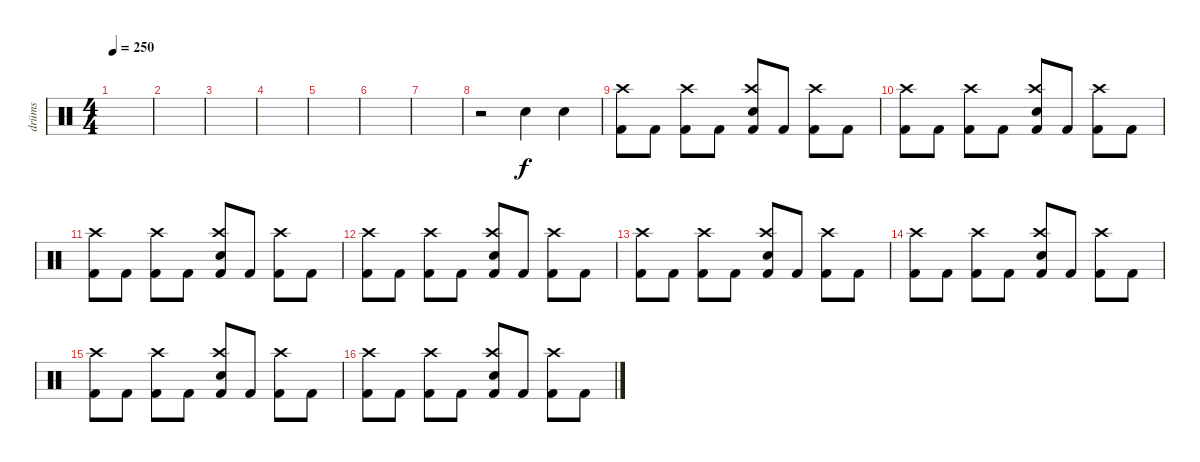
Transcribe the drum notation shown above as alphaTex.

\track ("drüms" "drüms") {instrument percussion}
\staff {score}
\articulation defaults
\ts (4 4)
\tempo 250
\clef neutral
\ks c
|
|
|
|
|
|
|
r.2 "Electric Snare (hit)".4 "Electric Snare (hit)".4 |
("Crash high (hit)" "Kick (hit) 2").8 "Kick (hit) 2".8 ("Crash high (hit)" "Kick (hit) 2").8 "Kick (hit) 2".8 ("Electric Snare (hit)" "Crash high (hit)" "Kick (hit) 2").8 "Kick (hit) 2".8 ("Crash high (hit)" "Kick (hit) 2").8 "Kick (hit) 2".8 |
("Crash high (hit)" "Kick (hit) 2").8 "Kick (hit) 2".8 ("Crash high (hit)" "Kick (hit) 2").8 "Kick (hit) 2".8 ("Electric Snare (hit)" "Crash high (hit)" "Kick (hit) 2").8 "Kick (hit) 2".8 ("Crash high (hit)" "Kick (hit) 2").8 "Kick (hit) 2".8 |
("Crash high (hit)" "Kick (hit) 2").8 "Kick (hit) 2".8 ("Crash high (hit)" "Kick (hit) 2").8 "Kick (hit) 2".8 ("Electric Snare (hit)" "Crash high (hit)" "Kick (hit) 2").8 "Kick (hit) 2".8 ("Crash high (hit)" "Kick (hit) 2").8 "Kick (hit) 2".8 |
("Crash high (hit)" "Kick (hit) 2").8 "Kick (hit) 2".8 ("Crash high (hit)" "Kick (hit) 2").8 "Kick (hit) 2".8 ("Electric Snare (hit)" "Crash high (hit)" "Kick (hit) 2").8 "Kick (hit) 2".8 ("Crash high (hit)" "Kick (hit) 2").8 "Kick (hit) 2".8 |
("Crash high (hit)" "Kick (hit) 2").8 "Kick (hit) 2".8 ("Crash high (hit)" "Kick (hit) 2").8 "Kick (hit) 2".8 ("Electric Snare (hit)" "Crash high (hit)" "Kick (hit) 2").8 "Kick (hit) 2".8 ("Crash high (hit)" "Kick (hit) 2").8 "Kick (hit) 2".8 |
("Crash high (hit)" "Kick (hit) 2").8 "Kick (hit) 2".8 ("Crash high (hit)" "Kick (hit) 2").8 "Kick (hit) 2".8 ("Electric Snare (hit)" "Crash high (hit)" "Kick (hit) 2").8 "Kick (hit) 2".8 ("Crash high (hit)" "Kick (hit) 2").8 "Kick (hit) 2".8 |
("Crash high (hit)" "Kick (hit) 2").8 "Kick (hit) 2".8 ("Crash high (hit)" "Kick (hit) 2").8 "Kick (hit) 2".8 ("Electric Snare (hit)" "Crash high (hit)" "Kick (hit) 2").8 "Kick (hit) 2".8 ("Crash high (hit)" "Kick (hit) 2").8 "Kick (hit) 2".8 |
("Crash high (hit)" "Kick (hit) 2").8 "Kick (hit) 2".8 ("Crash high (hit)" "Kick (hit) 2").8 "Kick (hit) 2".8 ("Electric Snare (hit)" "Crash high (hit)" "Kick (hit) 2").8 "Kick (hit) 2".8 ("Crash high (hit)" "Kick (hit) 2").8 "Kick (hit) 2".8
